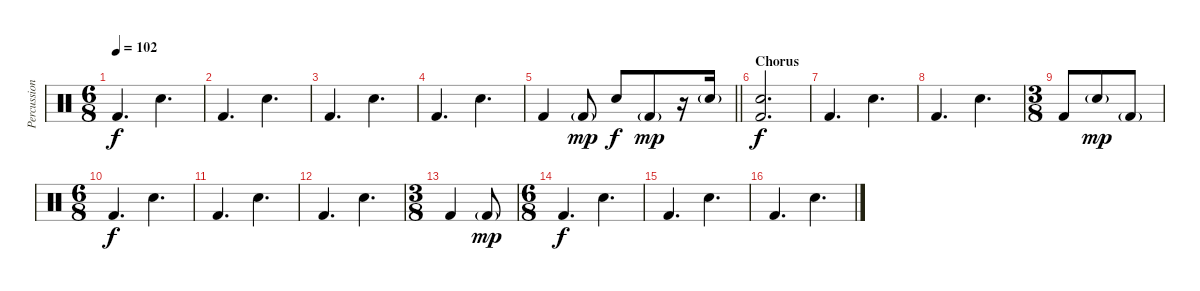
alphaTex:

\track ("Percussion" "Percussion") {instrument percussion}
\staff {score}
\articulation defaults
\ts (6 8)
\tempo 102
\clef neutral
\ks c "Kick (hit) 2".4{d dy f} "Snare (hit) 2".4{d}
|
"Kick (hit) 2".4{d} "Snare (hit) 2".4{d} |
"Kick (hit) 2".4{d} "Snare (hit) 2".4{d} |
"Kick (hit) 2".4{d} "Snare (hit) 2".4{d} |
\barLineRight lightlight "Kick (hit) 2".4 "Kick (hit) 2"{g}.8{dy mp} "Snare (hit) 2".8{dy f} "Kick (hit) 2"{g}.8{dy mp}
r.16 "Snare (hit) 2"{g}.16 |
\section ("" "Chorus")
("Snare (hit) 2" "Kick (hit) 2").2{d dy f} |
"Kick (hit) 2".4{d} "Snare (hit) 2".4{d} |
"Kick (hit) 2".4{d} "Snare (hit) 2".4{d} |
\ts (3 8)
"Kick (hit) 2".8 "Snare (hit) 2"{g}.8{dy mp} "Kick (hit) 2"{g}.8 |
\ts (6 8)
"Kick (hit) 2".4{d dy f} "Snare (hit) 2".4{d} |
"Kick (hit) 2".4{d} "Snare (hit) 2".4{d} |
"Kick (hit) 2".4{d} "Snare (hit) 2".4{d} |
\ts (3 8)
"Kick (hit) 2".4 "Kick (hit) 2"{g}.8{dy mp} |
\ts (6 8)
"Kick (hit) 2".4{d dy f} "Snare (hit) 2".4{d} |
"Kick (hit) 2".4{d} "Snare (hit) 2".4{d} |
"Kick (hit) 2".4{d} "Snare (hit) 2".4{d}
